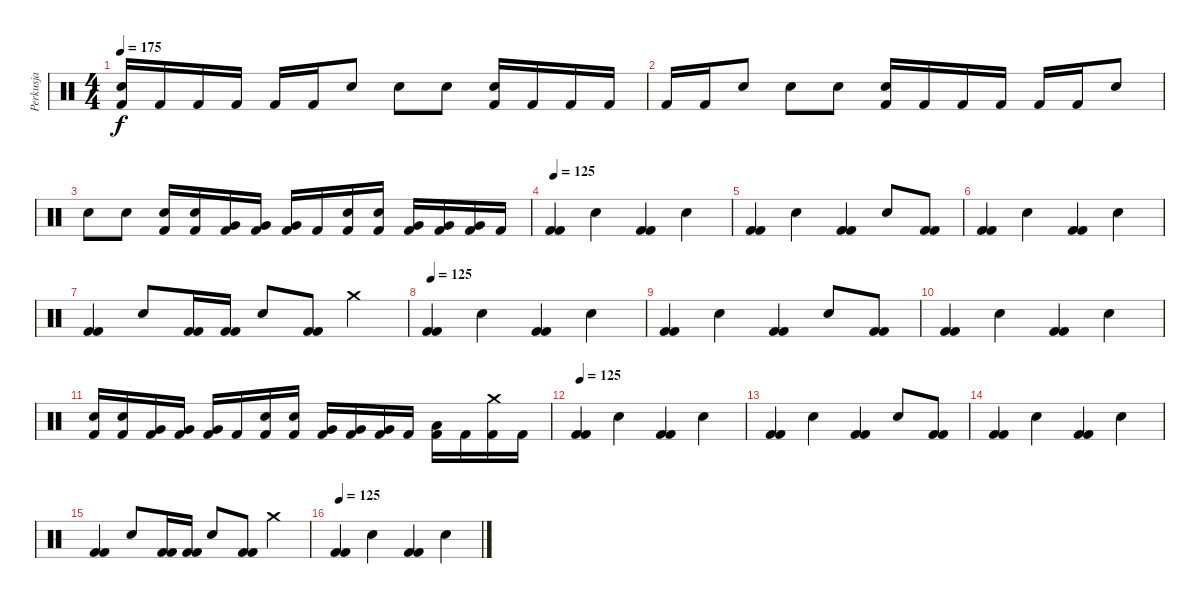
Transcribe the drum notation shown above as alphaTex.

\track ("Perkusja" "Perkusja") {instrument percussion}
\staff {score}
\articulation defaults
\ts (4 4)
\tempo 175
\clef neutral
\ks c
("Snare (hit) 2" "Kick (hit) 2").16{dy f} "Kick (hit) 2".16 "Kick (hit) 2".16 "Kick (hit) 2".16 "Kick (hit) 2".16 "Kick (hit) 2".16 "Snare (hit) 2".8 "Snare (hit) 2".8 "Snare (hit) 2".8 ("Snare (hit) 2" "Kick (hit) 2").16 "Kick (hit) 2".16 "Kick (hit) 2".16 "Kick (hit) 2".16 |
"Kick (hit) 2".16 "Kick (hit) 2".16 "Snare (hit) 2".8 "Snare (hit) 2".8 "Snare (hit) 2".8 ("Snare (hit) 2" "Kick (hit) 2").16 "Kick (hit) 2".16 "Kick (hit) 2".16 "Kick (hit) 2".16 "Kick (hit) 2".16 "Kick (hit) 2".16 "Snare (hit) 2".8 |
"Snare (hit) 2".8 "Snare (hit) 2".8 ("Electric Snare (hit)" "Kick (hit) 2").16 ("Snare (hit) 2" "Kick (hit) 2").16 ("Very Low Tom (hit)" "Kick (hit) 2").16 ("Very Low Tom (hit)" "Kick (hit) 2").16 ("Very Low Tom (hit)" "Kick (hit) 2").16 "Kick (hit) 2".16 ("Electric Snare (hit)" "Kick (hit) 2").16 ("Snare (hit) 2" "Kick (hit) 2").16 ("Very Low Tom (hit)" "Kick (hit) 2").16 ("Very Low Tom (hit)" "Kick (hit) 2").16 ("Very Low Tom (hit)" "Kick (hit) 2").16 "Kick (hit) 2".16 |
\tempo 125
("Kick (hit) 2" "Kick (hit) 2").4 "Snare (hit) 2".4 ("Kick (hit) 2" "Kick (hit) 2").4 "Snare (hit) 2".4 |
("Kick (hit) 2" "Kick (hit) 2").4 "Snare (hit) 2".4 ("Kick (hit) 2" "Kick (hit) 2").4 "Snare (hit) 2".8 ("Kick (hit) 2" "Kick (hit) 2").8 |
("Kick (hit) 2" "Kick (hit) 2").4 "Snare (hit) 2".4 ("Kick (hit) 2" "Kick (hit) 2").4 "Snare (hit) 2".4 |
("Kick (hit) 2" "Kick (hit) 2").4 "Snare (hit) 2".8 ("Kick (hit) 2" "Kick (hit) 2").16 ("Kick (hit) 2" "Kick (hit) 2").16 "Snare (hit) 2".8 ("Kick (hit) 2" "Kick (hit) 2").8 "Crash medium (hit)".4 |
\tempo 125
("Kick (hit) 2" "Kick (hit) 2").4 "Snare (hit) 2".4 ("Kick (hit) 2" "Kick (hit) 2").4 "Snare (hit) 2".4 |
("Kick (hit) 2" "Kick (hit) 2").4 "Snare (hit) 2".4 ("Kick (hit) 2" "Kick (hit) 2").4 "Snare (hit) 2".8 ("Kick (hit) 2" "Kick (hit) 2").8 |
("Kick (hit) 2" "Kick (hit) 2").4 "Snare (hit) 2".4 ("Kick (hit) 2" "Kick (hit) 2").4 "Snare (hit) 2".4 |
("Electric Snare (hit)" "Kick (hit) 2").16 ("Snare (hit) 2" "Kick (hit) 2").16 ("Very Low Tom (hit)" "Kick (hit) 2").16 ("Very Low Tom (hit)" "Kick (hit) 2").16 ("Very Low Tom (hit)" "Kick (hit) 2").16 "Kick (hit) 2".16 ("Electric Snare (hit)" "Kick (hit) 2").16 ("Snare (hit) 2" "Kick (hit) 2").16 ("Very Low Tom (hit)" "Kick (hit) 2").16 ("Very Low Tom (hit)" "Kick (hit) 2").16 ("Very Low Tom (hit)" "Kick (hit) 2").16 "Kick (hit) 2".16 ("Low Tom (hit)" "Kick (hit) 2").16 "Kick (hit) 2".16 ("Crash medium (hit)" "Kick (hit) 2").16 "Kick (hit) 2".16 |
\tempo 125
("Kick (hit) 2" "Kick (hit) 2").4 "Snare (hit) 2".4 ("Kick (hit) 2" "Kick (hit) 2").4 "Snare (hit) 2".4 |
("Kick (hit) 2" "Kick (hit) 2").4 "Snare (hit) 2".4 ("Kick (hit) 2" "Kick (hit) 2").4 "Snare (hit) 2".8 ("Kick (hit) 2" "Kick (hit) 2").8 |
("Kick (hit) 2" "Kick (hit) 2").4 "Snare (hit) 2".4 ("Kick (hit) 2" "Kick (hit) 2").4 "Snare (hit) 2".4 |
("Kick (hit) 2" "Kick (hit) 2").4 "Snare (hit) 2".8 ("Kick (hit) 2" "Kick (hit) 2").16 ("Kick (hit) 2" "Kick (hit) 2").16 "Snare (hit) 2".8 ("Kick (hit) 2" "Kick (hit) 2").8 "Crash medium (hit)".4 |
\tempo 125
("Kick (hit) 2" "Kick (hit) 2").4 "Snare (hit) 2".4 ("Kick (hit) 2" "Kick (hit) 2").4 "Snare (hit) 2".4
